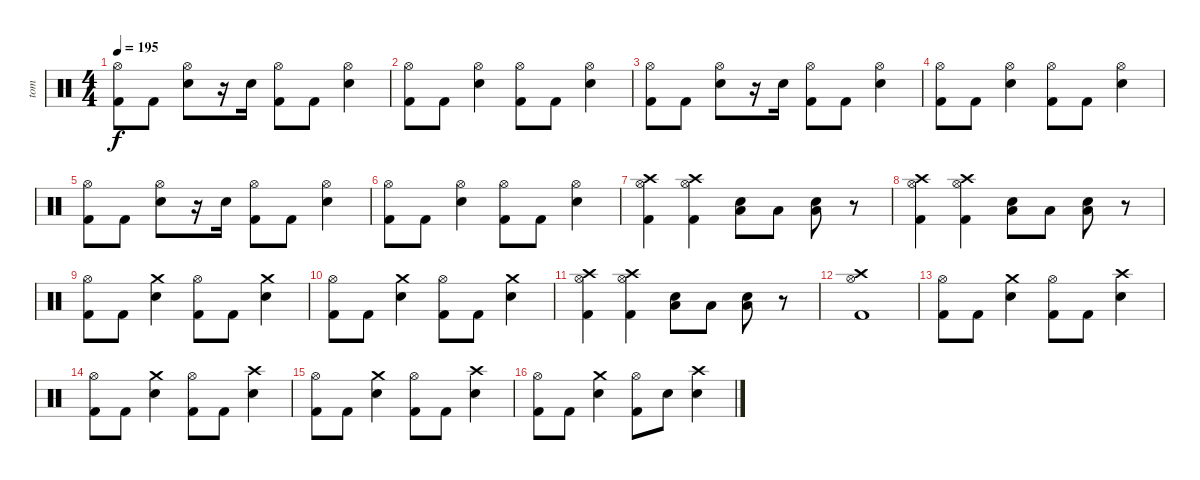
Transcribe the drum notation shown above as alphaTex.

\track ("tom" "tom") {instrument percussion}
\staff {score}
\articulation defaults
\ts (4 4)
\tempo 195
\clef neutral
\ks c
("Hi-Hat (open)" "Kick (hit) 2").8{dy f} "Kick (hit) 2".8 ("Hi-Hat (open)" "Electric Snare (hit)").8 r.16 "Electric Snare (hit)".16 ("Hi-Hat (open)" "Kick (hit) 2").8 "Kick (hit) 2".8 ("Hi-Hat (open)" "Electric Snare (hit)").4 |
("Hi-Hat (open)" "Kick (hit) 2").8 "Kick (hit) 2".8 ("Hi-Hat (open)" "Electric Snare (hit)").4 ("Hi-Hat (open)" "Kick (hit) 2").8 "Kick (hit) 2".8 ("Hi-Hat (open)" "Electric Snare (hit)").4 |
("Hi-Hat (open)" "Kick (hit) 2").8 "Kick (hit) 2".8 ("Hi-Hat (open)" "Electric Snare (hit)").8 r.16 "Electric Snare (hit)".16 ("Hi-Hat (open)" "Kick (hit) 2").8 "Kick (hit) 2".8 ("Hi-Hat (open)" "Electric Snare (hit)").4 |
("Hi-Hat (open)" "Kick (hit) 2").8 "Kick (hit) 2".8 ("Hi-Hat (open)" "Electric Snare (hit)").4 ("Hi-Hat (open)" "Kick (hit) 2").8 "Kick (hit) 2".8 ("Hi-Hat (open)" "Electric Snare (hit)").4 |
("Hi-Hat (open)" "Kick (hit) 2").8 "Kick (hit) 2".8 ("Hi-Hat (open)" "Electric Snare (hit)").8 r.16 "Electric Snare (hit)".16 ("Hi-Hat (open)" "Kick (hit) 2").8 "Kick (hit) 2".8 ("Hi-Hat (open)" "Electric Snare (hit)").4 |
("Hi-Hat (open)" "Kick (hit) 2").8 "Kick (hit) 2".8 ("Hi-Hat (open)" "Electric Snare (hit)").4 ("Hi-Hat (open)" "Kick (hit) 2").8 "Kick (hit) 2".8 ("Hi-Hat (open)" "Electric Snare (hit)").4 |
("Crash high (hit)" "Hi-Hat (open)" "Kick (hit) 2").4 ("Crash high (hit)" "Hi-Hat (open)" "Kick (hit) 2").4 ("Low Tom (hit)" "Electric Snare (hit)").8 "Low Tom (hit)".8 ("Low Tom (hit)" "Electric Snare (hit)").8 r.8 |
("Crash high (hit)" "Hi-Hat (open)" "Kick (hit) 2").4 ("Crash high (hit)" "Hi-Hat (open)" "Kick (hit) 2").4 ("Low Tom (hit)" "Electric Snare (hit)").8 "Low Tom (hit)".8 ("Low Tom (hit)" "Electric Snare (hit)").8 r.8 |
("Hi-Hat (open)" "Kick (hit) 2").8 "Kick (hit) 2".8 ("Crash medium (hit)" "Electric Snare (hit)").4 ("Hi-Hat (open)" "Kick (hit) 2").8 "Kick (hit) 2".8 ("Crash medium (hit)" "Electric Snare (hit)").4 |
("Hi-Hat (open)" "Kick (hit) 2").8 "Kick (hit) 2".8 ("Crash medium (hit)" "Electric Snare (hit)").4 ("Hi-Hat (open)" "Kick (hit) 2").8 "Kick (hit) 2".8 ("Crash medium (hit)" "Electric Snare (hit)").4 |
("Crash high (hit)" "Hi-Hat (open)" "Kick (hit) 2").4 ("Crash high (hit)" "Hi-Hat (open)" "Kick (hit) 2").4 ("Low Tom (hit)" "Electric Snare (hit)").8 "Low Tom (hit)".8 ("Low Tom (hit)" "Electric Snare (hit)").8 r.8 |
("Crash high (hit)" "Hi-Hat (open)" "Kick (hit) 2").1 |
("Hi-Hat (open)" "Kick (hit) 2").8 "Kick (hit) 2".8 ("Crash medium (hit)" "Electric Snare (hit)").4 ("Hi-Hat (open)" "Kick (hit) 2").8 "Kick (hit) 2".8 ("Crash high (hit)" "Electric Snare (hit)").4 |
("Hi-Hat (open)" "Kick (hit) 2").8 "Kick (hit) 2".8 ("Crash medium (hit)" "Electric Snare (hit)").4 ("Hi-Hat (open)" "Kick (hit) 2").8 "Kick (hit) 2".8 ("Crash high (hit)" "Electric Snare (hit)").4 |
("Hi-Hat (open)" "Kick (hit) 2").8 "Kick (hit) 2".8 ("Crash medium (hit)" "Electric Snare (hit)").4 ("Hi-Hat (open)" "Kick (hit) 2").8 "Kick (hit) 2".8 ("Crash high (hit)" "Electric Snare (hit)").4 |
("Hi-Hat (open)" "Kick (hit) 2").8 "Kick (hit) 2".8 ("Crash medium (hit)" "Electric Snare (hit)").4 ("Hi-Hat (open)" "Kick (hit) 2").8 "Electric Snare (hit)".8 ("Crash high (hit)" "Electric Snare (hit)").4
